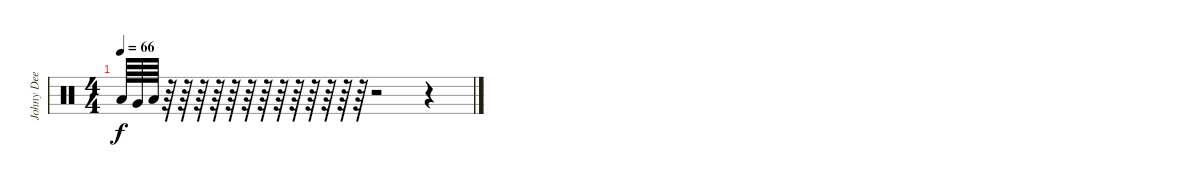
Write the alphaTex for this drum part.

\track ("Johny Dee" "Johny Dee") {instrument percussion}
\staff {score}
\articulation defaults
\ts (4 4)
\tempo 66
\clef neutral
\ks c "Low Tom (hit)".64{dy f} "Very Low Tom (hit)".64 "Low Floor Tom (hit)".64
r.64 r.64 r.64 r.64 r.64 r.64 r.64 r.64 r.64 r.64 r.64 r.64 r.64 r.2 r.4
